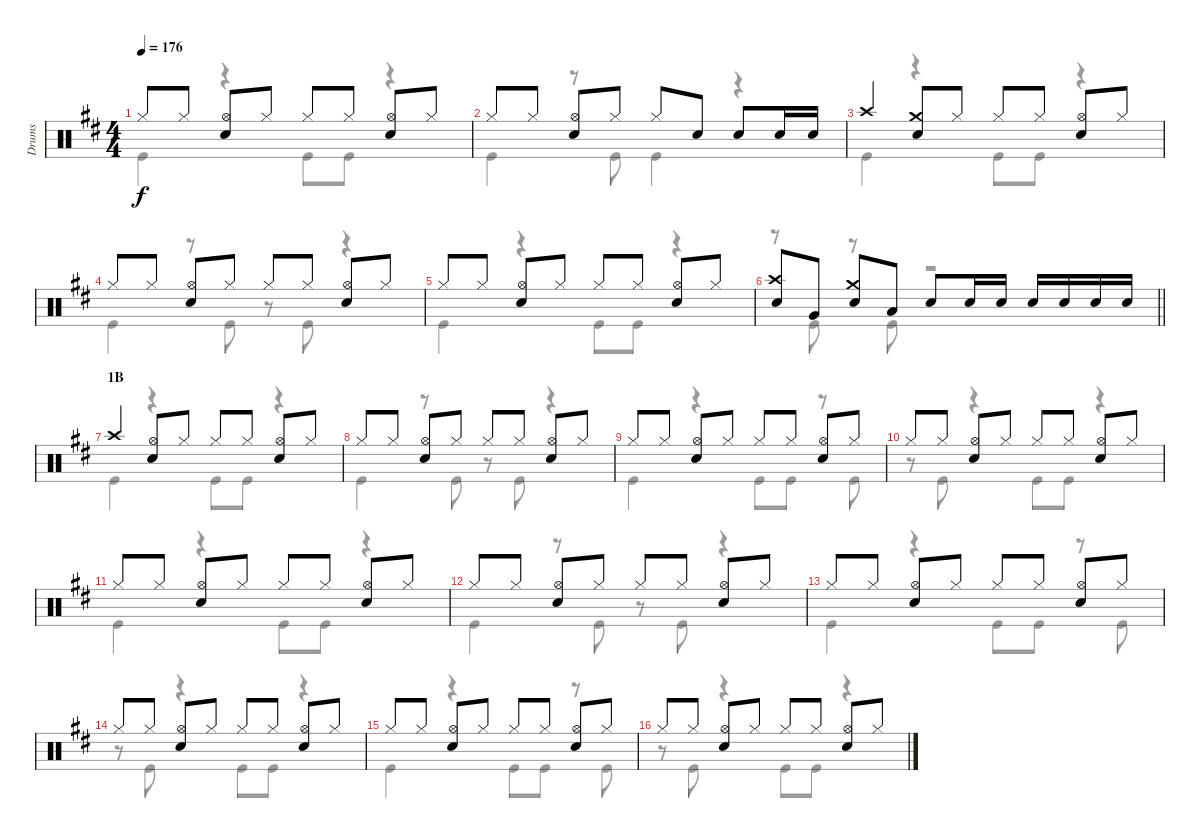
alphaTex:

\track ("Drums" "Drums") {instrument percussion}
\staff {score}
\articulation defaults
\voice
\ts (4 4)
\tempo 176
\clef neutral
\ks d "Hi-Hat (closed)".8{dy f} "Hi-Hat (closed)".8
("Hi-Hat (open)" "Snare (hit) 2").8 "Hi-Hat (closed)".8 "Hi-Hat (closed)".8 "Hi-Hat (closed)".8 ("Hi-Hat (open)" "Snare (hit) 2").8 "Hi-Hat (closed)".8 |
"Hi-Hat (closed)".8 "Hi-Hat (closed)".8 ("Hi-Hat (open)" "Snare (hit) 2").8 "Hi-Hat (closed)".8 "Hi-Hat (closed)".8 "Snare (hit) 2".8 "Snare (hit) 2".8 "Snare (hit) 2".16 "Snare (hit) 2".16 |
"Crash high (hit)".4 ("Crash medium (hit)" "Snare (hit) 2").8 "Hi-Hat (closed)".8 "Hi-Hat (closed)".8 "Hi-Hat (closed)".8 ("Hi-Hat (open)" "Snare (hit) 2").8 "Hi-Hat (closed)".8 |
"Hi-Hat (closed)".8 "Hi-Hat (closed)".8 ("Hi-Hat (open)" "Snare (hit) 2").8 "Hi-Hat (closed)".8 "Hi-Hat (closed)".8 "Hi-Hat (closed)".8 ("Hi-Hat (open)" "Snare (hit) 2").8 "Hi-Hat (closed)".8 |
"Hi-Hat (closed)".8 "Hi-Hat (closed)".8 ("Hi-Hat (open)" "Snare (hit) 2").8 "Hi-Hat (closed)".8 "Hi-Hat (closed)".8 "Hi-Hat (closed)".8 ("Hi-Hat (open)" "Snare (hit) 2").8 "Hi-Hat (closed)".8 |
\barLineRight lightlight
("Crash high (hit)" "Snare (hit) 2").8 "Very Low Tom (hit)".8 ("Crash medium (hit)" "Snare (hit) 2").8 "Low Tom (hit)".8 "Snare (hit) 2".8 "Snare (hit) 2".16 "Snare (hit) 2".16 "Snare (hit) 2".16 "Snare (hit) 2".16 "Snare (hit) 2".16 "Snare (hit) 2".16 |
\section ("" "1B")
"Crash high (hit)".4 ("Hi-Hat (open)" "Snare (hit) 2").8 "Hi-Hat (closed)".8 "Hi-Hat (closed)".8 "Hi-Hat (closed)".8 ("Hi-Hat (open)" "Snare (hit) 2").8 "Hi-Hat (closed)".8 |
"Hi-Hat (closed)".8 "Hi-Hat (closed)".8 ("Hi-Hat (open)" "Snare (hit) 2").8 "Hi-Hat (closed)".8 "Hi-Hat (closed)".8 "Hi-Hat (closed)".8 ("Hi-Hat (open)" "Snare (hit) 2").8 "Hi-Hat (closed)".8 |
"Hi-Hat (closed)".8 "Hi-Hat (closed)".8 ("Hi-Hat (open)" "Snare (hit) 2").8 "Hi-Hat (closed)".8 "Hi-Hat (closed)".8 "Hi-Hat (closed)".8 ("Hi-Hat (open)" "Snare (hit) 2").8 "Hi-Hat (closed)".8 |
"Hi-Hat (closed)".8 "Hi-Hat (closed)".8 ("Hi-Hat (open)" "Snare (hit) 2").8 "Hi-Hat (closed)".8 "Hi-Hat (closed)".8 "Hi-Hat (closed)".8 ("Hi-Hat (open)" "Snare (hit) 2").8 "Hi-Hat (closed)".8 |
"Hi-Hat (closed)".8 "Hi-Hat (closed)".8 ("Hi-Hat (open)" "Snare (hit) 2").8 "Hi-Hat (closed)".8 "Hi-Hat (closed)".8 "Hi-Hat (closed)".8 ("Hi-Hat (open)" "Snare (hit) 2").8 "Hi-Hat (closed)".8 |
"Hi-Hat (closed)".8 "Hi-Hat (closed)".8 ("Hi-Hat (open)" "Snare (hit) 2").8 "Hi-Hat (closed)".8 "Hi-Hat (closed)".8 "Hi-Hat (closed)".8 ("Hi-Hat (open)" "Snare (hit) 2").8 "Hi-Hat (closed)".8 |
"Hi-Hat (closed)".8 "Hi-Hat (closed)".8 ("Hi-Hat (open)" "Snare (hit) 2").8 "Hi-Hat (closed)".8 "Hi-Hat (closed)".8 "Hi-Hat (closed)".8 ("Hi-Hat (open)" "Snare (hit) 2").8 "Hi-Hat (closed)".8 |
"Hi-Hat (closed)".8 "Hi-Hat (closed)".8 ("Hi-Hat (open)" "Snare (hit) 2").8 "Hi-Hat (closed)".8 "Hi-Hat (closed)".8 "Hi-Hat (closed)".8 ("Hi-Hat (open)" "Snare (hit) 2").8 "Hi-Hat (closed)".8 |
"Hi-Hat (closed)".8 "Hi-Hat (closed)".8 ("Hi-Hat (open)" "Snare (hit) 2").8 "Hi-Hat (closed)".8 "Hi-Hat (closed)".8 "Hi-Hat (closed)".8 ("Hi-Hat (open)" "Snare (hit) 2").8 "Hi-Hat (closed)".8 |
"Hi-Hat (closed)".8 "Hi-Hat (closed)".8 ("Hi-Hat (open)" "Snare (hit) 2").8 "Hi-Hat (closed)".8 "Hi-Hat (closed)".8 "Hi-Hat (closed)".8 ("Hi-Hat (open)" "Snare (hit) 2").8 "Hi-Hat (closed)".8
\voice
\clef neutral
\ottava regular
\simile none
\ks d "Kick (hit)".4{dy f}
r.4 "Kick (hit)".8 "Kick (hit)".8 r.4 |
"Kick (hit)".4 r.8 "Kick (hit)".8 "Kick (hit)".4 r.4 |
"Kick (hit)".4 r.4 "Kick (hit)".8 "Kick (hit)".8 r.4 |
"Kick (hit)".4 r.8 "Kick (hit)".8 r.8 "Kick (hit)".8 r.4 |
"Kick (hit)".4 r.4 "Kick (hit)".8 "Kick (hit)".8 r.4 |
\barLineRight lightlight
r.8 "Kick (hit)".8 r.8 "Kick (hit)".8 r.2 |
"Kick (hit)".4 r.4 "Kick (hit)".8 "Kick (hit)".8 r.4 |
"Kick (hit)".4 r.8 "Kick (hit)".8 r.8 "Kick (hit)".8 r.4 |
"Kick (hit)".4 r.4 "Kick (hit)".8 "Kick (hit)".8 r.8 "Kick (hit)".8 |
r.8 "Kick (hit)".8 r.4 "Kick (hit)".8 "Kick (hit)".8 r.4 |
"Kick (hit)".4 r.4 "Kick (hit)".8 "Kick (hit)".8 r.4 |
"Kick (hit)".4 r.8 "Kick (hit)".8 r.8 "Kick (hit)".8 r.4 |
"Kick (hit)".4 r.4 "Kick (hit)".8 "Kick (hit)".8 r.8 "Kick (hit)".8 |
r.8 "Kick (hit)".8 r.4 "Kick (hit)".8 "Kick (hit)".8 r.4 |
"Kick (hit)".4 r.4 "Kick (hit)".8 "Kick (hit)".8 r.8 "Kick (hit)".8 |
r.8 "Kick (hit)".8 r.4 "Kick (hit)".8 "Kick (hit)".8 r.4
